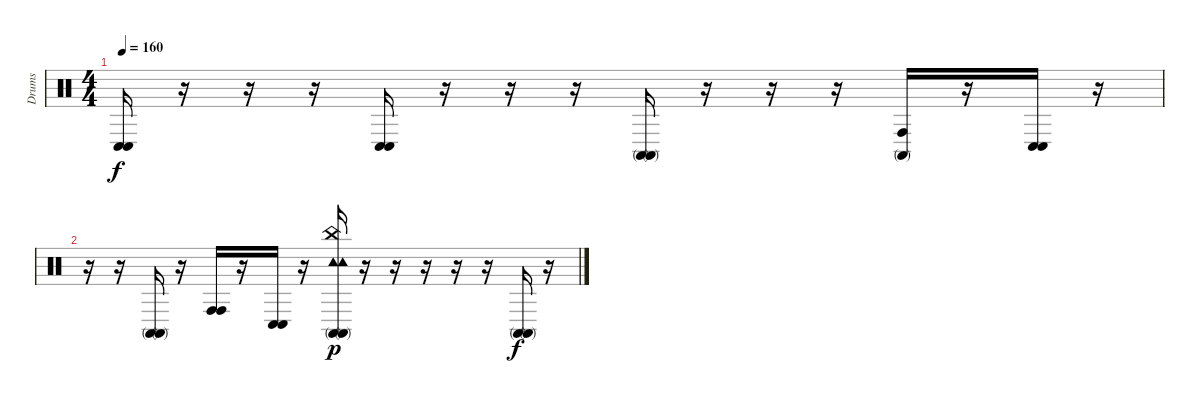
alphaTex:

\track ("Drums" "Drums") {instrument percussion}
\staff {score}
\articulation defaults
\ts (4 4)
\tempo 160
\clef neutral
\ks c
("Conga low (hit)" "Conga low (hit)").16{dy f} r.16 r.16 r.16 ("Conga low (hit)" "Conga low (hit)").16 r.16 r.16 r.16 ("Conga high (mute)" "Conga high (mute)").16 r.16 r.16 r.16 ("Conga high (hit)" "Conga high (mute)").16 r.16 ("Conga low (hit)" "Conga low (hit)").16 r.16 |
r.16 r.16 ("Conga high (mute)" "Conga high (mute)").16 r.16 ("Conga high (hit)" "Conga high (hit)").16 r.16 ("Conga low (hit)" "Conga low (hit)").16 r.16 ("Conga high (mute)" "Conga high (mute)" "Tambourine (hit)" "Tambourine (hit)" "China (hit)").16{dy p} r.16 r.16 r.16 r.16 r.16 ("Conga high (mute)" "Conga high (mute)").16{dy f} r.16
